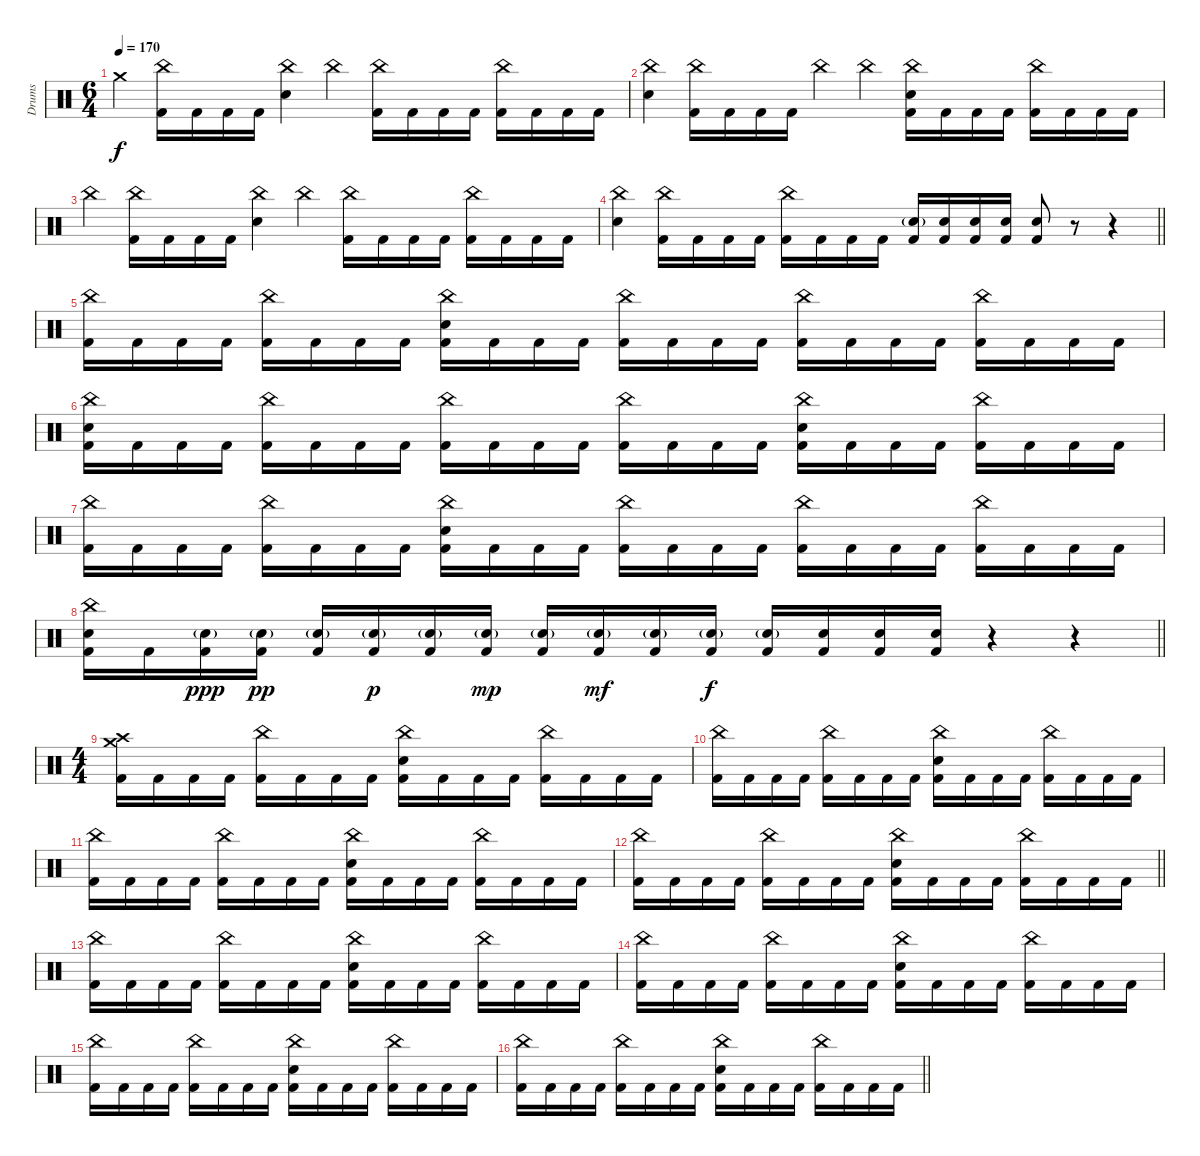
\track ("Drums" "Drums") {instrument percussion}
\staff {score}
\articulation defaults
\ts (6 4)
\tempo 170
\clef neutral
\ks c "Crash medium (hit)".4{dy f}
("China (hit)" "Kick (hit) 2").16 "Kick (hit) 2".16 "Kick (hit) 2".16 "Kick (hit) 2".16 ("China (hit)" "Electric Snare (hit)").4 "China (hit)".4 ("China (hit)" "Kick (hit) 2").16 "Kick (hit) 2".16 "Kick (hit) 2".16 "Kick (hit) 2".16{beam split} ("China (hit)" "Kick (hit) 2").16 "Kick (hit) 2".16 "Kick (hit) 2".16 "Kick (hit) 2".16 |
("China (hit)" "Electric Snare (hit)").4 ("China (hit)" "Kick (hit) 2").16 "Kick (hit) 2".16 "Kick (hit) 2".16 "Kick (hit) 2".16 "China (hit)".4 "China (hit)".4 ("China (hit)" "Electric Snare (hit)" "Kick (hit) 2").16 "Kick (hit) 2".16 "Kick (hit) 2".16 "Kick (hit) 2".16{beam split} ("China (hit)" "Kick (hit) 2").16 "Kick (hit) 2".16 "Kick (hit) 2".16 "Kick (hit) 2".16 |
"China (hit)".4 ("China (hit)" "Kick (hit) 2").16 "Kick (hit) 2".16 "Kick (hit) 2".16 "Kick (hit) 2".16 ("China (hit)" "Electric Snare (hit)").4 "China (hit)".4 ("China (hit)" "Kick (hit) 2").16 "Kick (hit) 2".16 "Kick (hit) 2".16 "Kick (hit) 2".16{beam split} ("China (hit)" "Kick (hit) 2").16 "Kick (hit) 2".16 "Kick (hit) 2".16 "Kick (hit) 2".16 |
\barLineRight lightlight
("China (hit)" "Electric Snare (hit)").4 ("China (hit)" "Kick (hit) 2").16 "Kick (hit) 2".16 "Kick (hit) 2".16 "Kick (hit) 2".16{beam split} ("China (hit)" "Kick (hit) 2").16 "Kick (hit) 2".16 "Kick (hit) 2".16 "Kick (hit) 2".16 ("Electric Snare (hit)"{g} "Kick (hit) 2").16 ("Electric Snare (hit)" "Kick (hit) 2").16 ("Electric Snare (hit)" "Kick (hit) 2").16 ("Electric Snare (hit)" "Kick (hit) 2").16{beam split} ("Electric Snare (hit)" "Kick (hit) 2").8 r.8 r.4 |
("China (hit)" "Kick (hit) 2").16 "Kick (hit) 2".16 "Kick (hit) 2".16 "Kick (hit) 2".16{beam split} ("China (hit)" "Kick (hit) 2").16 "Kick (hit) 2".16 "Kick (hit) 2".16 "Kick (hit) 2".16{beam split} ("China (hit)" "Electric Snare (hit)" "Kick (hit) 2").16 "Kick (hit) 2".16 "Kick (hit) 2".16 "Kick (hit) 2".16 ("China (hit)" "Kick (hit) 2").16 "Kick (hit) 2".16 "Kick (hit) 2".16 "Kick (hit) 2".16{beam split} ("China (hit)" "Kick (hit) 2").16 "Kick (hit) 2".16 "Kick (hit) 2".16 "Kick (hit) 2".16{beam split} ("China (hit)" "Kick (hit) 2").16 "Kick (hit) 2".16 "Kick (hit) 2".16 "Kick (hit) 2".16 |
("China (hit)" "Electric Snare (hit)" "Kick (hit) 2").16 "Kick (hit) 2".16 "Kick (hit) 2".16 "Kick (hit) 2".16{beam split} ("China (hit)" "Kick (hit) 2").16 "Kick (hit) 2".16 "Kick (hit) 2".16 "Kick (hit) 2".16{beam split} ("China (hit)" "Kick (hit) 2").16 "Kick (hit) 2".16 "Kick (hit) 2".16 "Kick (hit) 2".16 ("China (hit)" "Kick (hit) 2").16 "Kick (hit) 2".16 "Kick (hit) 2".16 "Kick (hit) 2".16{beam split} ("China (hit)" "Electric Snare (hit)" "Kick (hit) 2").16 "Kick (hit) 2".16 "Kick (hit) 2".16 "Kick (hit) 2".16{beam split} ("China (hit)" "Kick (hit) 2").16 "Kick (hit) 2".16 "Kick (hit) 2".16 "Kick (hit) 2".16 |
("China (hit)" "Kick (hit) 2").16 "Kick (hit) 2".16 "Kick (hit) 2".16 "Kick (hit) 2".16{beam split} ("China (hit)" "Kick (hit) 2").16 "Kick (hit) 2".16 "Kick (hit) 2".16 "Kick (hit) 2".16{beam split} ("China (hit)" "Electric Snare (hit)" "Kick (hit) 2").16 "Kick (hit) 2".16 "Kick (hit) 2".16 "Kick (hit) 2".16 ("China (hit)" "Kick (hit) 2").16 "Kick (hit) 2".16 "Kick (hit) 2".16 "Kick (hit) 2".16{beam split} ("China (hit)" "Kick (hit) 2").16 "Kick (hit) 2".16 "Kick (hit) 2".16 "Kick (hit) 2".16{beam split} ("China (hit)" "Kick (hit) 2").16 "Kick (hit) 2".16 "Kick (hit) 2".16 "Kick (hit) 2".16 |
\barLineRight lightlight
("China (hit)" "Electric Snare (hit)" "Kick (hit) 2").16 "Kick (hit) 2".16 ("Electric Snare (hit)"{g} "Kick (hit) 2").16{dy ppp} ("Electric Snare (hit)"{g} "Kick (hit) 2").16{dy pp beam split} ("Electric Snare (hit)"{g} "Kick (hit) 2").16 ("Electric Snare (hit)"{g} "Kick (hit) 2").16{dy p} ("Electric Snare (hit)"{g} "Kick (hit) 2").16 ("Electric Snare (hit)"{g} "Kick (hit) 2").16{dy mp beam split} ("Electric Snare (hit)"{g} "Kick (hit) 2").16 ("Electric Snare (hit)"{g} "Kick (hit) 2").16{dy mf} ("Electric Snare (hit)"{g} "Kick (hit) 2").16{beam merge} ("Electric Snare (hit)"{g} "Kick (hit) 2").16{dy f} ("Electric Snare (hit)"{g} "Kick (hit) 2").16 ("Electric Snare (hit)" "Kick (hit) 2").16 ("Electric Snare (hit)" "Kick (hit) 2").16 ("Electric Snare (hit)" "Kick (hit) 2").16 r.4 r.4 |
\ts (4 4)
("Crash high (hit)" "Crash medium (hit)" "Kick (hit) 2").16 "Kick (hit) 2".16 "Kick (hit) 2".16 "Kick (hit) 2".16{beam split} ("China (hit)" "Kick (hit) 2").16 "Kick (hit) 2".16 "Kick (hit) 2".16 "Kick (hit) 2".16{beam split} ("China (hit)" "Electric Snare (hit)" "Kick (hit) 2").16 "Kick (hit) 2".16 "Kick (hit) 2".16 "Kick (hit) 2".16 ("China (hit)" "Kick (hit) 2").16 "Kick (hit) 2".16 "Kick (hit) 2".16 "Kick (hit) 2".16 |
("China (hit)" "Kick (hit) 2").16 "Kick (hit) 2".16 "Kick (hit) 2".16 "Kick (hit) 2".16{beam split} ("China (hit)" "Kick (hit) 2").16 "Kick (hit) 2".16 "Kick (hit) 2".16 "Kick (hit) 2".16{beam split} ("China (hit)" "Electric Snare (hit)" "Kick (hit) 2").16 "Kick (hit) 2".16 "Kick (hit) 2".16 "Kick (hit) 2".16 ("China (hit)" "Kick (hit) 2").16 "Kick (hit) 2".16 "Kick (hit) 2".16 "Kick (hit) 2".16 |
("China (hit)" "Kick (hit) 2").16 "Kick (hit) 2".16 "Kick (hit) 2".16 "Kick (hit) 2".16{beam split} ("China (hit)" "Kick (hit) 2").16 "Kick (hit) 2".16 "Kick (hit) 2".16 "Kick (hit) 2".16{beam split} ("China (hit)" "Electric Snare (hit)" "Kick (hit) 2").16 "Kick (hit) 2".16 "Kick (hit) 2".16 "Kick (hit) 2".16 ("China (hit)" "Kick (hit) 2").16 "Kick (hit) 2".16 "Kick (hit) 2".16 "Kick (hit) 2".16 |
\barLineRight lightlight
("China (hit)" "Kick (hit) 2").16 "Kick (hit) 2".16 "Kick (hit) 2".16 "Kick (hit) 2".16{beam split} ("China (hit)" "Kick (hit) 2").16 "Kick (hit) 2".16 "Kick (hit) 2".16 "Kick (hit) 2".16{beam split} ("China (hit)" "Electric Snare (hit)" "Kick (hit) 2").16 "Kick (hit) 2".16 "Kick (hit) 2".16 "Kick (hit) 2".16 ("China (hit)" "Kick (hit) 2").16 "Kick (hit) 2".16 "Kick (hit) 2".16 "Kick (hit) 2".16 |
("China (hit)" "Kick (hit) 2").16 "Kick (hit) 2".16 "Kick (hit) 2".16 "Kick (hit) 2".16{beam split} ("China (hit)" "Kick (hit) 2").16 "Kick (hit) 2".16 "Kick (hit) 2".16 "Kick (hit) 2".16{beam split} ("China (hit)" "Electric Snare (hit)" "Kick (hit) 2").16 "Kick (hit) 2".16 "Kick (hit) 2".16 "Kick (hit) 2".16 ("China (hit)" "Kick (hit) 2").16 "Kick (hit) 2".16 "Kick (hit) 2".16 "Kick (hit) 2".16 |
("China (hit)" "Kick (hit) 2").16 "Kick (hit) 2".16 "Kick (hit) 2".16 "Kick (hit) 2".16{beam split} ("China (hit)" "Kick (hit) 2").16 "Kick (hit) 2".16 "Kick (hit) 2".16 "Kick (hit) 2".16{beam split} ("China (hit)" "Electric Snare (hit)" "Kick (hit) 2").16 "Kick (hit) 2".16 "Kick (hit) 2".16 "Kick (hit) 2".16 ("China (hit)" "Kick (hit) 2").16 "Kick (hit) 2".16 "Kick (hit) 2".16 "Kick (hit) 2".16 |
("China (hit)" "Kick (hit) 2").16 "Kick (hit) 2".16 "Kick (hit) 2".16 "Kick (hit) 2".16{beam split} ("China (hit)" "Kick (hit) 2").16 "Kick (hit) 2".16 "Kick (hit) 2".16 "Kick (hit) 2".16{beam split} ("China (hit)" "Electric Snare (hit)" "Kick (hit) 2").16 "Kick (hit) 2".16 "Kick (hit) 2".16 "Kick (hit) 2".16 ("China (hit)" "Kick (hit) 2").16 "Kick (hit) 2".16 "Kick (hit) 2".16 "Kick (hit) 2".16 |
\barLineRight lightlight
("China (hit)" "Kick (hit) 2").16 "Kick (hit) 2".16 "Kick (hit) 2".16 "Kick (hit) 2".16{beam split} ("China (hit)" "Kick (hit) 2").16 "Kick (hit) 2".16 "Kick (hit) 2".16 "Kick (hit) 2".16{beam split} ("China (hit)" "Electric Snare (hit)" "Kick (hit) 2").16 "Kick (hit) 2".16 "Kick (hit) 2".16 "Kick (hit) 2".16 ("China (hit)" "Kick (hit) 2").16 "Kick (hit) 2".16 "Kick (hit) 2".16 "Kick (hit) 2".16
